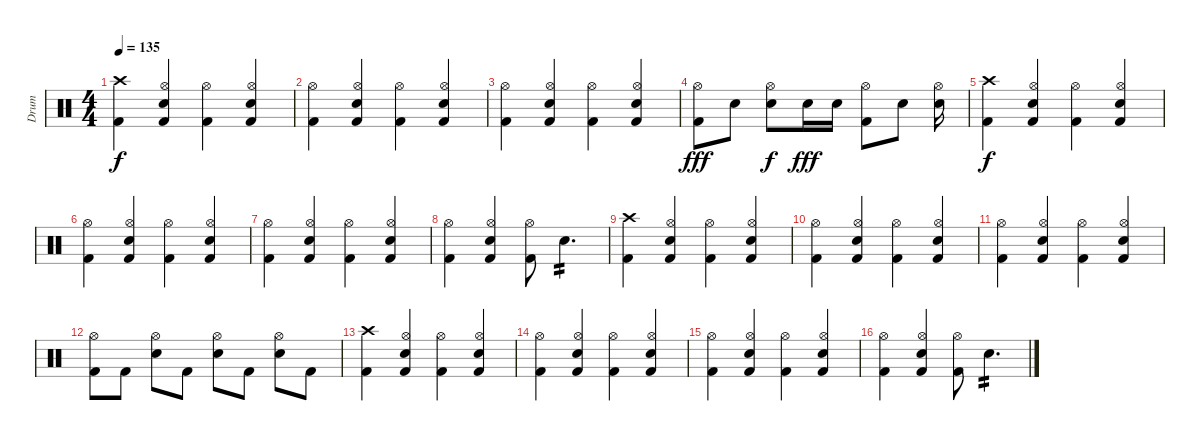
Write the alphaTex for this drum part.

\track ("Drum" "Drum") {instrument percussion bank 127}
\staff {score}
\articulation defaults
\ts (4 4)
\tempo 135
\clef neutral
\ks c
("Kick (hit) 2" "Crash high (hit)").4{dy f} ("Hi-Hat (open)" "Kick (hit) 2" "Electric Snare (hit)").4 ("Hi-Hat (open)" "Kick (hit) 2").4 ("Hi-Hat (open)" "Kick (hit) 2" "Electric Snare (hit)").4 |
("Hi-Hat (open)" "Kick (hit) 2").4 ("Hi-Hat (open)" "Kick (hit) 2" "Electric Snare (hit)").4 ("Hi-Hat (open)" "Kick (hit) 2").4 ("Hi-Hat (open)" "Kick (hit) 2" "Electric Snare (hit)").4 |
("Hi-Hat (open)" "Kick (hit) 2").4 ("Hi-Hat (open)" "Kick (hit) 2" "Electric Snare (hit)").4 ("Hi-Hat (open)" "Kick (hit) 2").4 ("Hi-Hat (open)" "Kick (hit) 2" "Electric Snare (hit)").4 |
("Hi-Hat (open)" "Kick (hit) 2").8{dy fff} "Electric Snare (hit)".8 ("Hi-Hat (open)" "Electric Snare (hit)").8{dy f} "Electric Snare (hit)".16{dy fff} "Electric Snare (hit)".16 ("Hi-Hat (open)" "Kick (hit) 2").8 "Electric Snare (hit)".8 ("Hi-Hat (open)" "Electric Snare (hit)").16 |
("Kick (hit) 2" "Crash high (hit)").4{dy f} ("Hi-Hat (open)" "Kick (hit) 2" "Electric Snare (hit)").4 ("Hi-Hat (open)" "Kick (hit) 2").4 ("Hi-Hat (open)" "Kick (hit) 2" "Electric Snare (hit)").4 |
("Hi-Hat (open)" "Kick (hit) 2").4 ("Hi-Hat (open)" "Kick (hit) 2" "Electric Snare (hit)").4 ("Hi-Hat (open)" "Kick (hit) 2").4 ("Hi-Hat (open)" "Kick (hit) 2" "Electric Snare (hit)").4 |
("Hi-Hat (open)" "Kick (hit) 2").4 ("Hi-Hat (open)" "Kick (hit) 2" "Electric Snare (hit)").4 ("Hi-Hat (open)" "Kick (hit) 2").4 ("Hi-Hat (open)" "Kick (hit) 2" "Electric Snare (hit)").4 |
("Hi-Hat (open)" "Kick (hit) 2").4 ("Hi-Hat (open)" "Kick (hit) 2" "Electric Snare (hit)").4 ("Hi-Hat (open)" "Kick (hit) 2").8 "Electric Snare (hit)".4{d tp 2} |
("Kick (hit) 2" "Crash high (hit)").4 ("Hi-Hat (open)" "Kick (hit) 2" "Electric Snare (hit)").4 ("Hi-Hat (open)" "Kick (hit) 2").4 ("Hi-Hat (open)" "Kick (hit) 2" "Electric Snare (hit)").4 |
("Hi-Hat (open)" "Kick (hit) 2").4 ("Hi-Hat (open)" "Kick (hit) 2" "Electric Snare (hit)").4 ("Hi-Hat (open)" "Kick (hit) 2").4 ("Hi-Hat (open)" "Kick (hit) 2" "Electric Snare (hit)").4 |
("Hi-Hat (open)" "Kick (hit) 2").4 ("Hi-Hat (open)" "Kick (hit) 2" "Electric Snare (hit)").4 ("Hi-Hat (open)" "Kick (hit) 2").4 ("Hi-Hat (open)" "Kick (hit) 2" "Electric Snare (hit)").4 |
("Hi-Hat (open)" "Kick (hit) 2").8 "Kick (hit) 2".8 ("Hi-Hat (open)" "Electric Snare (hit)").8 "Kick (hit) 2".8 ("Hi-Hat (open)" "Electric Snare (hit)").8 "Kick (hit) 2".8 ("Hi-Hat (open)" "Electric Snare (hit)").8 "Kick (hit) 2".8 |
("Kick (hit) 2" "Crash high (hit)").4 ("Hi-Hat (open)" "Kick (hit) 2" "Electric Snare (hit)").4 ("Hi-Hat (open)" "Kick (hit) 2").4 ("Hi-Hat (open)" "Kick (hit) 2" "Electric Snare (hit)").4 |
("Hi-Hat (open)" "Kick (hit) 2").4 ("Hi-Hat (open)" "Kick (hit) 2" "Electric Snare (hit)").4 ("Hi-Hat (open)" "Kick (hit) 2").4 ("Hi-Hat (open)" "Kick (hit) 2" "Electric Snare (hit)").4 |
("Hi-Hat (open)" "Kick (hit) 2").4 ("Hi-Hat (open)" "Kick (hit) 2" "Electric Snare (hit)").4 ("Hi-Hat (open)" "Kick (hit) 2").4 ("Hi-Hat (open)" "Kick (hit) 2" "Electric Snare (hit)").4 |
("Hi-Hat (open)" "Kick (hit) 2").4 ("Hi-Hat (open)" "Kick (hit) 2" "Electric Snare (hit)").4 ("Hi-Hat (open)" "Kick (hit) 2").8 "Electric Snare (hit)".4{d tp 2}
